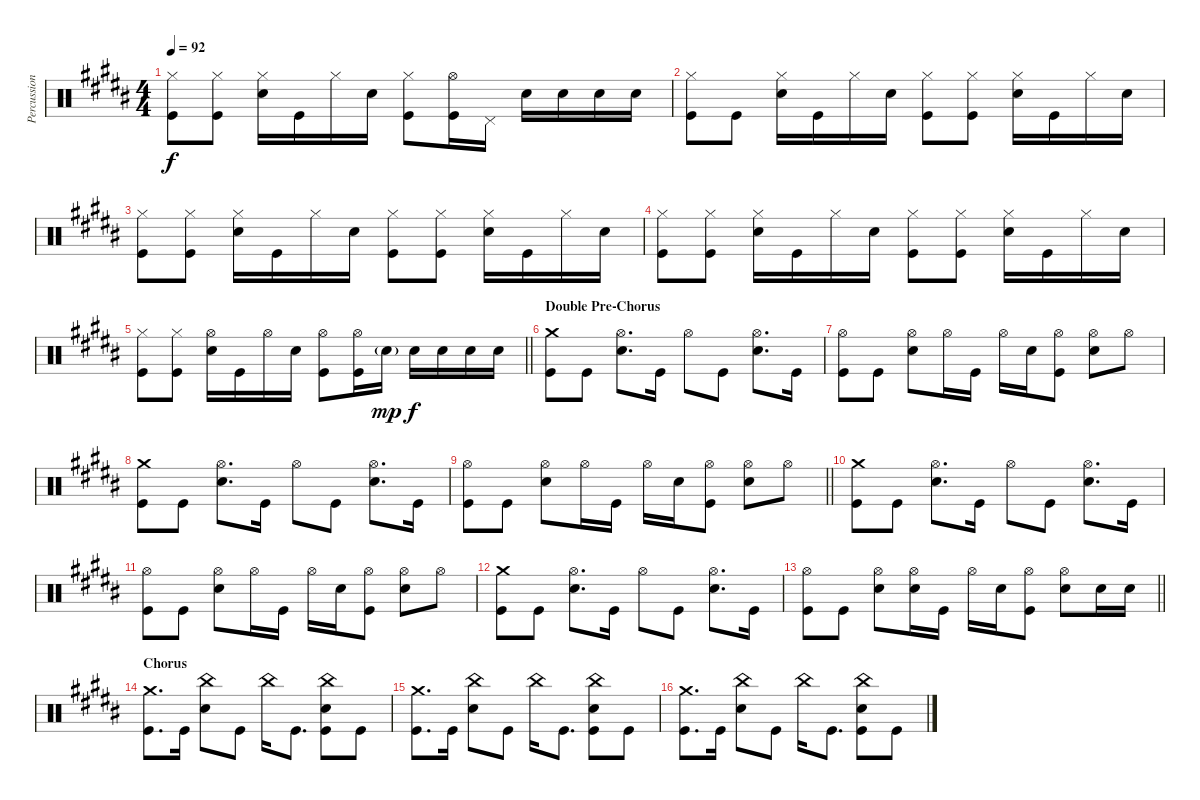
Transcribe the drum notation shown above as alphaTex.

\track ("Percussion" "Percussion") {instrument percussion}
\staff {score}
\articulation defaults
\ts (4 4)
\tempo 92
\clef neutral
\ks b
("Hi-Hat (closed)" "Kick (hit)").8{dy f} ("Hi-Hat (closed)" "Kick (hit)").8 ("Hi-Hat (closed)" "Electric Snare (hit)").16 "Kick (hit)".16 "Hi-Hat (closed)".16 "Electric Snare (hit)".16 ("Hi-Hat (closed)" "Kick (hit)").8 ("Hi-Hat (open)" "Kick (hit)").16 "Pedal Hi-Hat (hit)".16 "Electric Snare (hit)".16 "Electric Snare (hit)".16 "Electric Snare (hit)".16 "Electric Snare (hit)".16 |
("Hi-Hat (closed)" "Kick (hit)").8 "Kick (hit)".8 ("Hi-Hat (closed)" "Electric Snare (hit)").16 "Kick (hit)".16 "Hi-Hat (closed)".16 "Electric Snare (hit)".16 ("Hi-Hat (closed)" "Kick (hit)").8 ("Hi-Hat (closed)" "Kick (hit)").8 ("Hi-Hat (closed)" "Electric Snare (hit)").16 "Kick (hit)".16 "Hi-Hat (closed)".16 "Electric Snare (hit)".16 |
("Hi-Hat (closed)" "Kick (hit)").8 ("Hi-Hat (closed)" "Kick (hit)").8 ("Hi-Hat (closed)" "Electric Snare (hit)").16 "Kick (hit)".16 "Hi-Hat (closed)".16 "Electric Snare (hit)".16 ("Hi-Hat (closed)" "Kick (hit)").8 ("Hi-Hat (closed)" "Kick (hit)").8 ("Hi-Hat (closed)" "Electric Snare (hit)").16 "Kick (hit)".16 "Hi-Hat (closed)".16 "Electric Snare (hit)".16 |
("Hi-Hat (closed)" "Kick (hit)").8 ("Hi-Hat (closed)" "Kick (hit)").8 ("Hi-Hat (closed)" "Electric Snare (hit)").16 "Kick (hit)".16 "Hi-Hat (closed)".16 "Electric Snare (hit)".16 ("Hi-Hat (closed)" "Kick (hit)").8 ("Hi-Hat (closed)" "Kick (hit)").8 ("Hi-Hat (closed)" "Electric Snare (hit)").16 "Kick (hit)".16 "Hi-Hat (closed)".16 "Electric Snare (hit)".16 |
\barLineRight lightlight
("Hi-Hat (closed)" "Kick (hit)").8 ("Hi-Hat (closed)" "Kick (hit)").8 ("Hi-Hat (open)" "Electric Snare (hit)").16 "Kick (hit)".16 "Hi-Hat (open)".16 "Electric Snare (hit)".16 ("Hi-Hat (open)" "Kick (hit)").8 ("Hi-Hat (open)" "Kick (hit)").16 "Electric Snare (hit)"{g}.16{dy mp} "Electric Snare (hit)".16{dy f} "Electric Snare (hit)".16 "Electric Snare (hit)".16 "Electric Snare (hit)".16 |
\section ("" "Double Pre-Chorus")
("Crash medium (hit)" "Kick (hit)").8 "Kick (hit)".8 ("Hi-Hat (open)" "Electric Snare (hit)").8{d} "Kick (hit)".16 "Hi-Hat (open)".8 "Kick (hit)".8 ("Hi-Hat (open)" "Electric Snare (hit)").8{d} "Kick (hit)".16 |
("Hi-Hat (open)" "Kick (hit)").8 "Kick (hit)".8 ("Hi-Hat (open)" "Electric Snare (hit)").8 "Hi-Hat (open)".16 "Kick (hit)".16 "Hi-Hat (open)".16 "Electric Snare (hit)".16 ("Hi-Hat (open)" "Kick (hit)").8 ("Hi-Hat (open)" "Electric Snare (hit)").8 "Hi-Hat (open)".8 |
("Crash medium (hit)" "Kick (hit)").8 "Kick (hit)".8 ("Hi-Hat (open)" "Electric Snare (hit)").8{d} "Kick (hit)".16 "Hi-Hat (open)".8 "Kick (hit)".8 ("Hi-Hat (open)" "Electric Snare (hit)").8{d} "Kick (hit)".16 |
\barLineRight lightlight
("Hi-Hat (open)" "Kick (hit)").8 "Kick (hit)".8 ("Hi-Hat (open)" "Electric Snare (hit)").8 "Hi-Hat (open)".16 "Kick (hit)".16 "Hi-Hat (open)".16 "Electric Snare (hit)".16 ("Hi-Hat (open)" "Kick (hit)").8 ("Hi-Hat (open)" "Electric Snare (hit)").8 "Hi-Hat (open)".8 |
("Crash medium (hit)" "Kick (hit)").8 "Kick (hit)".8 ("Hi-Hat (open)" "Electric Snare (hit)").8{d} "Kick (hit)".16 "Hi-Hat (open)".8 "Kick (hit)".8 ("Hi-Hat (open)" "Electric Snare (hit)").8{d} "Kick (hit)".16 |
("Hi-Hat (open)" "Kick (hit)").8 "Kick (hit)".8 ("Hi-Hat (open)" "Electric Snare (hit)").8 "Hi-Hat (open)".16 "Kick (hit)".16 "Hi-Hat (open)".16 "Electric Snare (hit)".16 ("Hi-Hat (open)" "Kick (hit)").8 ("Hi-Hat (open)" "Electric Snare (hit)").8 "Hi-Hat (open)".8 |
("Crash medium (hit)" "Kick (hit)").8 "Kick (hit)".8 ("Hi-Hat (open)" "Electric Snare (hit)").8{d} "Kick (hit)".16 "Hi-Hat (open)".8 "Kick (hit)".8 ("Hi-Hat (open)" "Electric Snare (hit)").8{d} "Kick (hit)".16 |
\barLineRight lightlight
("Hi-Hat (open)" "Kick (hit)").8 "Kick (hit)".8 ("Hi-Hat (open)" "Electric Snare (hit)").8 ("Hi-Hat (open)" "Electric Snare (hit)").16 "Kick (hit)".16 "Hi-Hat (open)".16 "Electric Snare (hit)".16 ("Hi-Hat (open)" "Kick (hit)").8 ("Hi-Hat (open)" "Electric Snare (hit)").8 "Electric Snare (hit)".16 "Electric Snare (hit)".16 |
\section ("" "Chorus")
("Crash medium (hit)" "Kick (hit)").8{d} "Kick (hit)".16 ("China (hit)" "Electric Snare (hit)").8 "Kick (hit)".8 "China (hit)".16 "Kick (hit)".8{d} ("China (hit)" "Electric Snare (hit)" "Kick (hit)").8 "Kick (hit)".8 |
("Crash medium (hit)" "Kick (hit)").8{d} "Kick (hit)".16 ("China (hit)" "Electric Snare (hit)").8 "Kick (hit)".8 "China (hit)".16 "Kick (hit)".8{d} ("China (hit)" "Electric Snare (hit)" "Kick (hit)").8 "Kick (hit)".8 |
("Crash medium (hit)" "Kick (hit)").8{d} "Kick (hit)".16 ("China (hit)" "Electric Snare (hit)").8 "Kick (hit)".8 "China (hit)".16 "Kick (hit)".8{d} ("China (hit)" "Electric Snare (hit)" "Kick (hit)").8 "Kick (hit)".8
